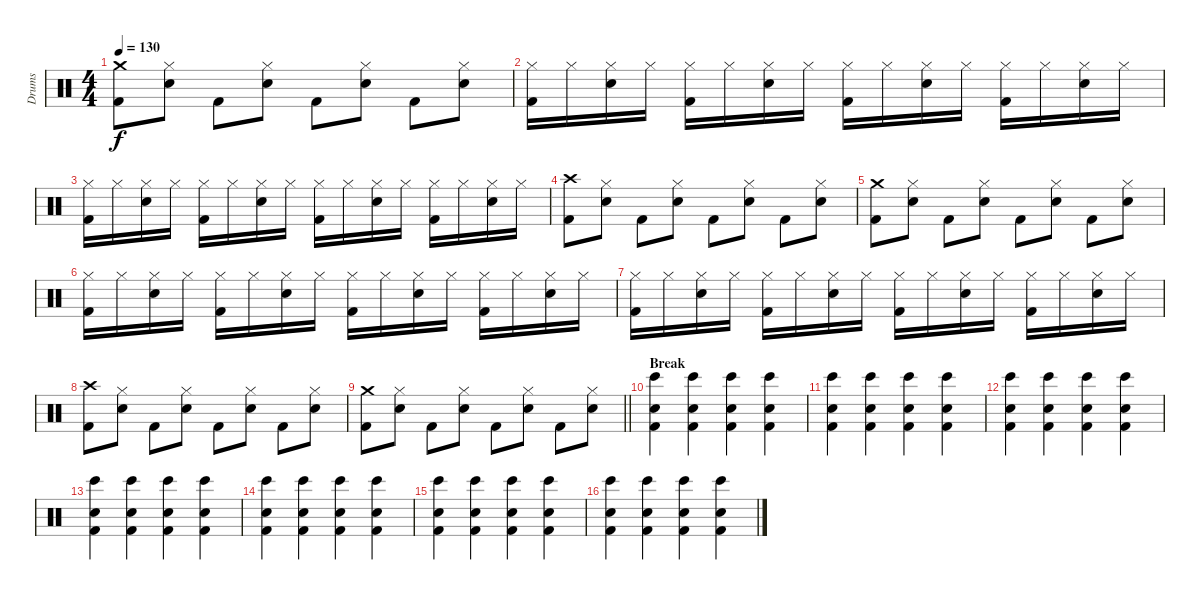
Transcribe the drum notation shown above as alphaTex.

\track ("Drums" "Drums") {instrument percussion}
\staff {score}
\articulation defaults
\ts (4 4)
\tempo 130
\clef neutral
\ks c
("Crash medium (hit)" "Kick (hit) 2").8{dy f} ("Electric Snare (hit)" "Hi-Hat (closed)").8 "Kick (hit) 2".8 ("Electric Snare (hit)" "Hi-Hat (closed)").8 "Kick (hit) 2".8 ("Electric Snare (hit)" "Hi-Hat (closed)").8 "Kick (hit) 2".8 ("Electric Snare (hit)" "Hi-Hat (closed)").8 |
("Hi-Hat (closed)" "Kick (hit) 2").16 "Hi-Hat (closed)".16 ("Hi-Hat (closed)" "Electric Snare (hit)").16 "Hi-Hat (closed)".16 ("Hi-Hat (closed)" "Kick (hit) 2").16 "Hi-Hat (closed)".16 ("Hi-Hat (closed)" "Electric Snare (hit)").16 "Hi-Hat (closed)".16 ("Hi-Hat (closed)" "Kick (hit) 2").16 "Hi-Hat (closed)".16 ("Hi-Hat (closed)" "Electric Snare (hit)").16 "Hi-Hat (closed)".16 ("Hi-Hat (closed)" "Kick (hit) 2").16 "Hi-Hat (closed)".16 ("Hi-Hat (closed)" "Electric Snare (hit)").16 "Hi-Hat (closed)".16 |
("Hi-Hat (closed)" "Kick (hit) 2").16 "Hi-Hat (closed)".16 ("Hi-Hat (closed)" "Electric Snare (hit)").16 "Hi-Hat (closed)".16 ("Hi-Hat (closed)" "Kick (hit) 2").16 "Hi-Hat (closed)".16 ("Hi-Hat (closed)" "Electric Snare (hit)").16 "Hi-Hat (closed)".16 ("Hi-Hat (closed)" "Kick (hit) 2").16 "Hi-Hat (closed)".16 ("Hi-Hat (closed)" "Electric Snare (hit)").16 "Hi-Hat (closed)".16 ("Hi-Hat (closed)" "Kick (hit) 2").16 "Hi-Hat (closed)".16 ("Hi-Hat (closed)" "Electric Snare (hit)").16 "Hi-Hat (closed)".16 |
("Crash high (hit)" "Kick (hit) 2").8 ("Electric Snare (hit)" "Hi-Hat (closed)").8 "Kick (hit) 2".8 ("Electric Snare (hit)" "Hi-Hat (closed)").8 "Kick (hit) 2".8 ("Electric Snare (hit)" "Hi-Hat (closed)").8 "Kick (hit) 2".8 ("Electric Snare (hit)" "Hi-Hat (closed)").8 |
("Crash medium (hit)" "Kick (hit) 2").8 ("Electric Snare (hit)" "Hi-Hat (closed)").8 "Kick (hit) 2".8 ("Electric Snare (hit)" "Hi-Hat (closed)").8 "Kick (hit) 2".8 ("Electric Snare (hit)" "Hi-Hat (closed)").8 "Kick (hit) 2".8 ("Electric Snare (hit)" "Hi-Hat (closed)").8 |
("Hi-Hat (closed)" "Kick (hit) 2").16 "Hi-Hat (closed)".16 ("Hi-Hat (closed)" "Electric Snare (hit)").16 "Hi-Hat (closed)".16 ("Hi-Hat (closed)" "Kick (hit) 2").16 "Hi-Hat (closed)".16 ("Hi-Hat (closed)" "Electric Snare (hit)").16 "Hi-Hat (closed)".16 ("Hi-Hat (closed)" "Kick (hit) 2").16 "Hi-Hat (closed)".16 ("Hi-Hat (closed)" "Electric Snare (hit)").16 "Hi-Hat (closed)".16 ("Hi-Hat (closed)" "Kick (hit) 2").16 "Hi-Hat (closed)".16 ("Hi-Hat (closed)" "Electric Snare (hit)").16 "Hi-Hat (closed)".16 |
("Hi-Hat (closed)" "Kick (hit) 2").16 "Hi-Hat (closed)".16 ("Hi-Hat (closed)" "Electric Snare (hit)").16 "Hi-Hat (closed)".16 ("Hi-Hat (closed)" "Kick (hit) 2").16 "Hi-Hat (closed)".16 ("Hi-Hat (closed)" "Electric Snare (hit)").16 "Hi-Hat (closed)".16 ("Hi-Hat (closed)" "Kick (hit) 2").16 "Hi-Hat (closed)".16 ("Hi-Hat (closed)" "Electric Snare (hit)").16 "Hi-Hat (closed)".16 ("Hi-Hat (closed)" "Kick (hit) 2").16 "Hi-Hat (closed)".16 ("Hi-Hat (closed)" "Electric Snare (hit)").16 "Hi-Hat (closed)".16 |
("Crash high (hit)" "Kick (hit) 2").8 ("Electric Snare (hit)" "Hi-Hat (closed)").8 "Kick (hit) 2".8 ("Electric Snare (hit)" "Hi-Hat (closed)").8 "Kick (hit) 2".8 ("Electric Snare (hit)" "Hi-Hat (closed)").8 "Kick (hit) 2".8 ("Electric Snare (hit)" "Hi-Hat (closed)").8 |
\barLineRight lightlight
("Crash medium (hit)" "Kick (hit) 2").8 ("Electric Snare (hit)" "Hi-Hat (closed)").8 "Kick (hit) 2".8 ("Electric Snare (hit)" "Hi-Hat (closed)").8 "Kick (hit) 2".8 ("Electric Snare (hit)" "Hi-Hat (closed)").8 "Kick (hit) 2".8 ("Electric Snare (hit)" "Hi-Hat (closed)").8 |
\section ("" "Break")
("Electric Snare (hit)" "Kick (hit) 2" "Bongo High (hit)").4 ("Electric Snare (hit)" "Kick (hit) 2" "Bongo High (hit)").4 ("Electric Snare (hit)" "Kick (hit) 2" "Bongo High (hit)").4 ("Electric Snare (hit)" "Kick (hit) 2" "Bongo High (hit)").4 |
("Electric Snare (hit)" "Kick (hit) 2" "Bongo High (hit)").4 ("Electric Snare (hit)" "Kick (hit) 2" "Bongo High (hit)").4 ("Electric Snare (hit)" "Kick (hit) 2" "Bongo High (hit)").4 ("Electric Snare (hit)" "Kick (hit) 2" "Bongo High (hit)").4 |
("Electric Snare (hit)" "Kick (hit) 2" "Bongo High (hit)").4 ("Electric Snare (hit)" "Kick (hit) 2" "Bongo High (hit)").4 ("Electric Snare (hit)" "Kick (hit) 2" "Bongo High (hit)").4 ("Electric Snare (hit)" "Kick (hit) 2" "Bongo High (hit)").4 |
("Electric Snare (hit)" "Kick (hit) 2" "Bongo High (hit)").4 ("Electric Snare (hit)" "Kick (hit) 2" "Bongo High (hit)").4 ("Electric Snare (hit)" "Kick (hit) 2" "Bongo High (hit)").4 ("Electric Snare (hit)" "Kick (hit) 2" "Bongo High (hit)").4 |
("Electric Snare (hit)" "Kick (hit) 2" "Bongo High (hit)").4 ("Electric Snare (hit)" "Kick (hit) 2" "Bongo High (hit)").4 ("Electric Snare (hit)" "Kick (hit) 2" "Bongo High (hit)").4 ("Electric Snare (hit)" "Kick (hit) 2" "Bongo High (hit)").4 |
("Electric Snare (hit)" "Kick (hit) 2" "Bongo High (hit)").4 ("Electric Snare (hit)" "Kick (hit) 2" "Bongo High (hit)").4 ("Electric Snare (hit)" "Kick (hit) 2" "Bongo High (hit)").4 ("Electric Snare (hit)" "Kick (hit) 2" "Bongo High (hit)").4 |
("Electric Snare (hit)" "Kick (hit) 2" "Bongo High (hit)").4 ("Electric Snare (hit)" "Kick (hit) 2" "Bongo High (hit)").4 ("Electric Snare (hit)" "Kick (hit) 2" "Bongo High (hit)").4 ("Electric Snare (hit)" "Kick (hit) 2" "Bongo High (hit)").4
